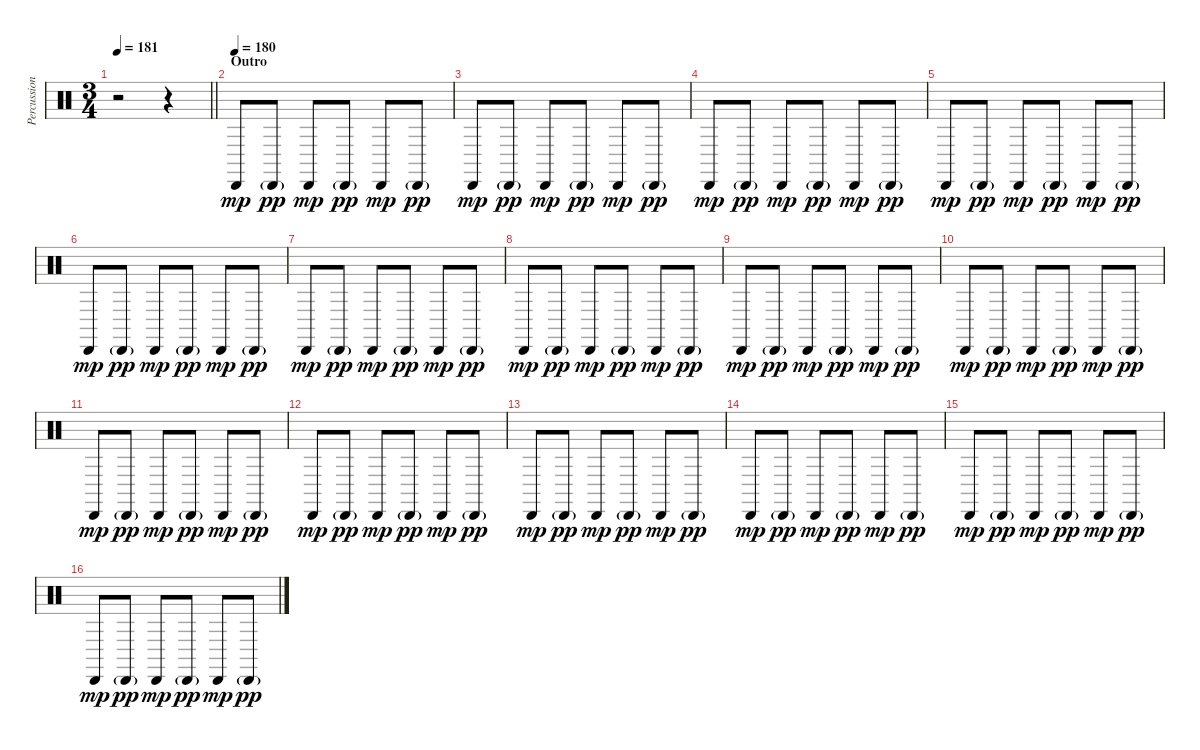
\track ("Percussion" "Percussion") {instrument percussion}
\staff {score}
\articulation defaults
\ts (3 4)
\tempo 181
\clef neutral
\barLineRight lightlight
\ks c
r.2{dy pp} r.4 |
\section ("" "Outro")
\tempo (180)
"Cabasa (hit)".8{dy mp} "Cabasa (hit)"{g}.8{dy pp} "Cabasa (hit)".8{dy mp} "Cabasa (hit)"{g}.8{dy pp} "Cabasa (hit)".8{dy mp} "Cabasa (hit)"{g}.8{dy pp} |
"Cabasa (hit)".8{dy mp} "Cabasa (hit)"{g}.8{dy pp} "Cabasa (hit)".8{dy mp} "Cabasa (hit)"{g}.8{dy pp} "Cabasa (hit)".8{dy mp} "Cabasa (hit)"{g}.8{dy pp} |
"Cabasa (hit)".8{dy mp} "Cabasa (hit)"{g}.8{dy pp} "Cabasa (hit)".8{dy mp} "Cabasa (hit)"{g}.8{dy pp} "Cabasa (hit)".8{dy mp} "Cabasa (hit)"{g}.8{dy pp} |
"Cabasa (hit)".8{dy mp} "Cabasa (hit)"{g}.8{dy pp} "Cabasa (hit)".8{dy mp} "Cabasa (hit)"{g}.8{dy pp} "Cabasa (hit)".8{dy mp} "Cabasa (hit)"{g}.8{dy pp} |
"Cabasa (hit)".8{dy mp} "Cabasa (hit)"{g}.8{dy pp} "Cabasa (hit)".8{dy mp} "Cabasa (hit)"{g}.8{dy pp} "Cabasa (hit)".8{dy mp} "Cabasa (hit)"{g}.8{dy pp} |
"Cabasa (hit)".8{dy mp} "Cabasa (hit)"{g}.8{dy pp} "Cabasa (hit)".8{dy mp} "Cabasa (hit)"{g}.8{dy pp} "Cabasa (hit)".8{dy mp} "Cabasa (hit)"{g}.8{dy pp} |
"Cabasa (hit)".8{dy mp} "Cabasa (hit)"{g}.8{dy pp} "Cabasa (hit)".8{dy mp} "Cabasa (hit)"{g}.8{dy pp} "Cabasa (hit)".8{dy mp} "Cabasa (hit)"{g}.8{dy pp} |
"Cabasa (hit)".8{dy mp} "Cabasa (hit)"{g}.8{dy pp} "Cabasa (hit)".8{dy mp} "Cabasa (hit)"{g}.8{dy pp} "Cabasa (hit)".8{dy mp} "Cabasa (hit)"{g}.8{dy pp} |
"Cabasa (hit)".8{dy mp} "Cabasa (hit)"{g}.8{dy pp} "Cabasa (hit)".8{dy mp} "Cabasa (hit)"{g}.8{dy pp} "Cabasa (hit)".8{dy mp} "Cabasa (hit)"{g}.8{dy pp} |
"Cabasa (hit)".8{dy mp} "Cabasa (hit)"{g}.8{dy pp} "Cabasa (hit)".8{dy mp} "Cabasa (hit)"{g}.8{dy pp} "Cabasa (hit)".8{dy mp} "Cabasa (hit)"{g}.8{dy pp} |
"Cabasa (hit)".8{dy mp} "Cabasa (hit)"{g}.8{dy pp} "Cabasa (hit)".8{dy mp} "Cabasa (hit)"{g}.8{dy pp} "Cabasa (hit)".8{dy mp} "Cabasa (hit)"{g}.8{dy pp} |
"Cabasa (hit)".8{dy mp} "Cabasa (hit)"{g}.8{dy pp} "Cabasa (hit)".8{dy mp} "Cabasa (hit)"{g}.8{dy pp} "Cabasa (hit)".8{dy mp} "Cabasa (hit)"{g}.8{dy pp} |
"Cabasa (hit)".8{dy mp} "Cabasa (hit)"{g}.8{dy pp} "Cabasa (hit)".8{dy mp} "Cabasa (hit)"{g}.8{dy pp} "Cabasa (hit)".8{dy mp} "Cabasa (hit)"{g}.8{dy pp} |
"Cabasa (hit)".8{dy mp} "Cabasa (hit)"{g}.8{dy pp} "Cabasa (hit)".8{dy mp} "Cabasa (hit)"{g}.8{dy pp} "Cabasa (hit)".8{dy mp} "Cabasa (hit)"{g}.8{dy pp} |
"Cabasa (hit)".8{dy mp} "Cabasa (hit)"{g}.8{dy pp} "Cabasa (hit)".8{dy mp} "Cabasa (hit)"{g}.8{dy pp} "Cabasa (hit)".8{dy mp} "Cabasa (hit)"{g}.8{dy pp}
